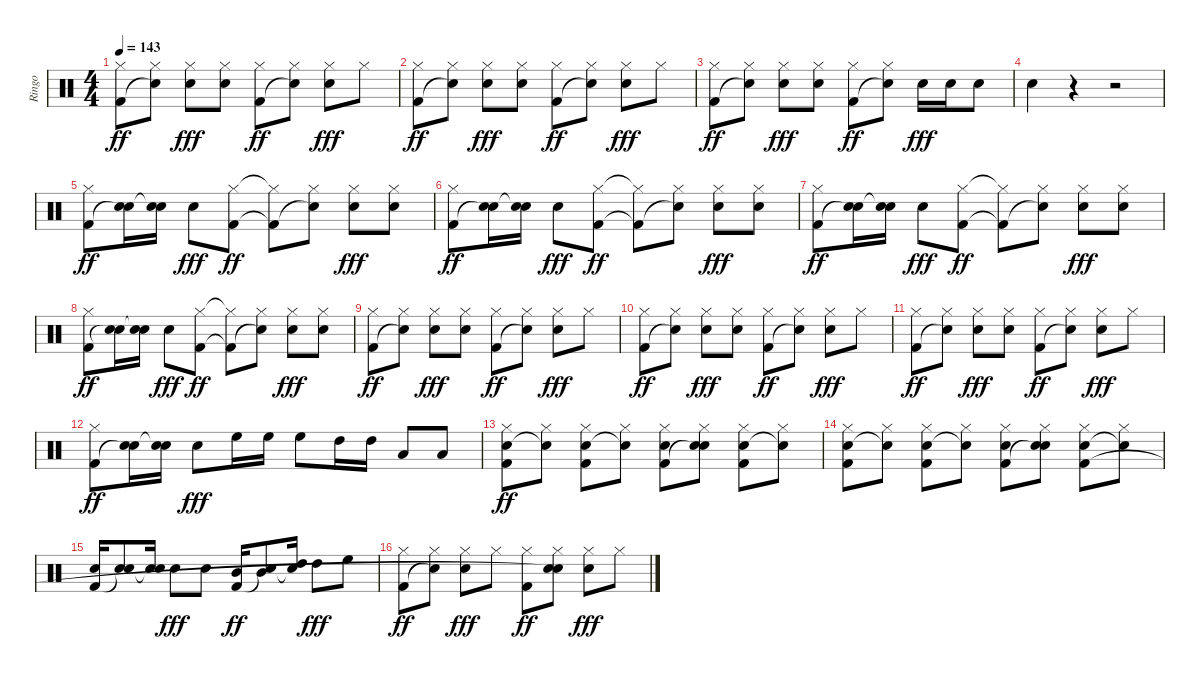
\track ("Ringo" "Ringo") {instrument percussion}
\staff {score}
\articulation defaults
\ts (4 4)
\tempo 143
\clef neutral
\ks c
("Hi-Hat (closed)" "Kick (hit) 2").8{dy ff} ("Hi-Hat (closed)" "Snare (hit)"{t}).8 ("Hi-Hat (closed)" "Snare (hit) 2").8{dy fff} ("Hi-Hat (closed)" "Snare (hit) 2").8 ("Hi-Hat (closed)" "Kick (hit) 2").8{dy ff} ("Hi-Hat (closed)" "Snare (hit)"{t}).8 ("Hi-Hat (closed)" "Snare (hit) 2").8{dy fff} "Hi-Hat (closed)".8 |
("Hi-Hat (closed)" "Kick (hit) 2").8{dy ff} ("Hi-Hat (closed)" "Snare (hit)"{t}).8 ("Hi-Hat (closed)" "Snare (hit) 2").8{dy fff} ("Hi-Hat (closed)" "Snare (hit) 2").8 ("Hi-Hat (closed)" "Kick (hit) 2").8{dy ff} ("Hi-Hat (closed)" "Snare (hit)"{t}).8 ("Hi-Hat (closed)" "Snare (hit) 2").8{dy fff} "Hi-Hat (closed)".8 |
("Hi-Hat (closed)" "Kick (hit) 2").8{dy ff} ("Hi-Hat (closed)" "Snare (hit)"{t}).8 ("Hi-Hat (closed)" "Snare (hit) 2").8{dy fff} ("Hi-Hat (closed)" "Snare (hit) 2").8 ("Hi-Hat (closed)" "Kick (hit) 2").8{dy ff} ("Hi-Hat (closed)" "Snare (hit)"{t}).8 "Snare (hit) 2".16{dy fff} "Snare (hit) 2".16 "Snare (hit) 2".8 |
"Snare (hit) 2".4 r.4 r.2 |
("Hi-Hat (closed)" "Kick (hit) 2").8{dy ff} ("Snare (hit) 2" "Snare (hit)"{t}).16 ("Snare (hit) 2" "Snare (hit)"{t}).16 "Snare (hit) 2".8{dy fff} ("Hi-Hat (closed)" "Kick (hit) 2").8{dy ff} ("Hi-Hat (closed)"{t} "Kick (hit) 2"{t}).8 ("Hi-Hat (closed)" "Snare (hit)"{t}).8 ("Hi-Hat (closed)" "Snare (hit) 2").8{dy fff} ("Hi-Hat (closed)" "Snare (hit) 2").8 |
("Hi-Hat (closed)" "Kick (hit) 2").8{dy ff} ("Snare (hit) 2" "Snare (hit)"{t}).16 ("Snare (hit) 2" "Snare (hit)"{t}).16 "Snare (hit) 2".8{dy fff} ("Hi-Hat (closed)" "Kick (hit) 2").8{dy ff} ("Hi-Hat (closed)"{t} "Kick (hit) 2"{t}).8 ("Hi-Hat (closed)" "Snare (hit)"{t}).8 ("Hi-Hat (closed)" "Snare (hit) 2").8{dy fff} ("Hi-Hat (closed)" "Snare (hit) 2").8 |
("Hi-Hat (closed)" "Kick (hit) 2").8{dy ff} ("Snare (hit) 2" "Snare (hit)"{t}).16 ("Snare (hit) 2" "Snare (hit)"{t}).16 "Snare (hit) 2".8{dy fff} ("Hi-Hat (closed)" "Kick (hit) 2").8{dy ff} ("Hi-Hat (closed)"{t} "Kick (hit) 2"{t}).8 ("Hi-Hat (closed)" "Snare (hit)"{t}).8 ("Hi-Hat (closed)" "Snare (hit) 2").8{dy fff} ("Hi-Hat (closed)" "Snare (hit) 2").8 |
("Hi-Hat (closed)" "Kick (hit) 2").8{dy ff} ("Snare (hit) 2" "Snare (hit)"{t}).16 ("Snare (hit) 2" "Snare (hit)"{t}).16 "Snare (hit) 2".8{dy fff} ("Hi-Hat (closed)" "Kick (hit) 2").8{dy ff} ("Hi-Hat (closed)"{t} "Kick (hit) 2"{t}).8 ("Hi-Hat (closed)" "Snare (hit)"{t}).8 ("Hi-Hat (closed)" "Snare (hit) 2").8{dy fff} ("Hi-Hat (closed)" "Snare (hit) 2").8 |
("Hi-Hat (closed)" "Kick (hit) 2").8{dy ff} ("Hi-Hat (closed)" "Snare (hit)"{t}).8 ("Hi-Hat (closed)" "Snare (hit) 2").8{dy fff} ("Hi-Hat (closed)" "Snare (hit) 2").8 ("Hi-Hat (closed)" "Kick (hit) 2").8{dy ff} ("Hi-Hat (closed)" "Snare (hit)"{t}).8 ("Hi-Hat (closed)" "Snare (hit) 2").8{dy fff} "Hi-Hat (closed)".8 |
("Hi-Hat (closed)" "Kick (hit) 2").8{dy ff} ("Hi-Hat (closed)" "Snare (hit)"{t}).8 ("Hi-Hat (closed)" "Snare (hit) 2").8{dy fff} ("Hi-Hat (closed)" "Snare (hit) 2").8 ("Hi-Hat (closed)" "Kick (hit) 2").8{dy ff} ("Hi-Hat (closed)" "Snare (hit)"{t}).8 ("Hi-Hat (closed)" "Snare (hit) 2").8{dy fff} "Hi-Hat (closed)".8 |
("Hi-Hat (closed)" "Kick (hit) 2").8{dy ff} ("Hi-Hat (closed)" "Snare (hit)"{t}).8 ("Hi-Hat (closed)" "Snare (hit) 2").8{dy fff} ("Hi-Hat (closed)" "Snare (hit) 2").8 ("Hi-Hat (closed)" "Kick (hit) 2").8{dy ff} ("Hi-Hat (closed)" "Snare (hit)"{t}).8 ("Hi-Hat (closed)" "Snare (hit) 2").8{dy fff} "Hi-Hat (closed)".8 |
("Hi-Hat (closed)" "Kick (hit) 2").8{dy ff} ("Snare (hit) 2" "Snare (hit)"{t}).16 ("Snare (hit) 2" "Snare (hit)"{t}).16 "Snare (hit) 2".8{dy fff} "High Floor Tom (hit)".16 "High Floor Tom (hit)".16 "High Floor Tom (hit)".8 "High Tom (hit)".16 "High Tom (hit)".16 "Low Tom (hit)".8 "Low Tom (hit)".8 |
("Hi-Hat (closed)" "Snare (hit) 2" "Kick (hit) 2").8{dy ff} ("Hi-Hat (closed)" "Snare (hit)"{t}).8 ("Hi-Hat (closed)" "Snare (hit) 2" "Kick (hit) 2").8 ("Hi-Hat (closed)" "Snare (hit)"{t}).8 ("Hi-Hat (closed)" "Snare (hit) 2" "Kick (hit) 2").8 ("Hi-Hat (closed)" "Snare (hit) 2" "Snare (hit)"{t}).8 ("Hi-Hat (closed)" "Snare (hit) 2" "Kick (hit) 2").8 ("Hi-Hat (closed)" "Snare (hit)"{t}).8 |
("Hi-Hat (closed)" "Snare (hit) 2" "Kick (hit) 2").8 ("Hi-Hat (closed)" "Snare (hit)"{t}).8 ("Hi-Hat (closed)" "Snare (hit) 2" "Kick (hit) 2").8 ("Hi-Hat (closed)" "Snare (hit)"{t}).8 ("Hi-Hat (closed)" "Snare (hit) 2" "Kick (hit) 2").8 ("Hi-Hat (closed)" "Snare (hit) 2" "Snare (hit)"{t}).8 ("Hi-Hat (closed)" "Snare (hit) 2" "Kick (hit) 2").8 ("Hi-Hat (closed)" "Snare (hit)"{t}).8 |
("Snare (hit) 2" "Kick (hit) 2").16 ("Snare (hit) 2" "Snare (hit)"{t}).8 ("Snare (hit) 2" "Snare (hit)"{t}).16 "Snare (hit) 2".8{dy fff} "Snare (hit) 2".8 ("Mid Tom (hit)" "Kick (hit) 2").16{dy ff} ("Mid Tom (hit)" "Snare (hit)"{t}).8 ("High Tom (hit)" "Snare (hit)"{t}).16 "High Tom (hit)".8{dy fff} "High Floor Tom (hit)".8 |
("Hi-Hat (closed)" "Kick (hit) 2").8{dy ff} ("Hi-Hat (closed)" "Snare (hit)"{t}).8 ("Hi-Hat (closed)" "Snare (hit) 2").8{dy fff} "Hi-Hat (closed)".8 ("Hi-Hat (closed)" "Kick (hit) 2").8{dy ff} ("Hi-Hat (closed)" "Snare (hit) 2" "Snare (hit)"{t}).8 ("Hi-Hat (closed)" "Snare (hit) 2").8{dy fff} "Hi-Hat (closed)".8
